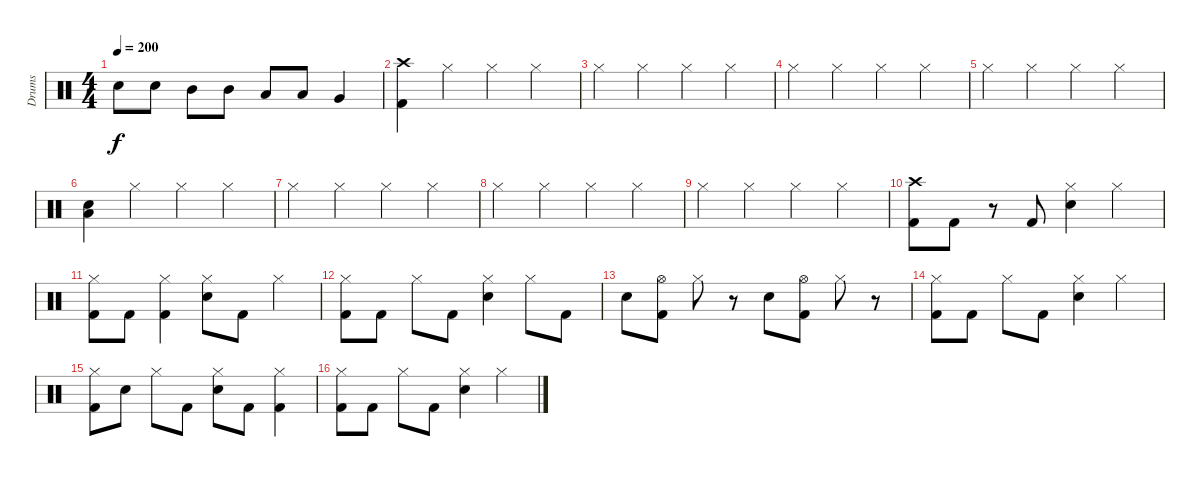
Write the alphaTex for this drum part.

\track ("Drums" "Drums") {instrument percussion}
\staff {score}
\articulation defaults
\ts (4 4)
\tempo 200
\clef neutral
\ks c "Electric Snare (hit)".8{dy f} "Electric Snare (hit)".8 "Mid Tom (hit)".8 "Mid Tom (hit)".8 "Low Tom (hit)".8 "Low Tom (hit)".8 "Very Low Tom (hit)".4
|
("Crash high (hit)" "Kick (hit) 2").4 "Hi-Hat (closed)".4 "Hi-Hat (closed)".4 "Hi-Hat (closed)".4 |
"Hi-Hat (closed)".4 "Hi-Hat (closed)".4 "Hi-Hat (closed)".4 "Hi-Hat (closed)".4 |
"Hi-Hat (closed)".4 "Hi-Hat (closed)".4 "Hi-Hat (closed)".4 "Hi-Hat (closed)".4 |
"Hi-Hat (closed)".4 "Hi-Hat (closed)".4 "Hi-Hat (closed)".4 "Hi-Hat (closed)".4 |
("Electric Snare (hit)" "Low Tom (hit)").4 "Hi-Hat (closed)".4 "Hi-Hat (closed)".4 "Hi-Hat (closed)".4 |
"Hi-Hat (closed)".4 "Hi-Hat (closed)".4 "Hi-Hat (closed)".4 "Hi-Hat (closed)".4 |
"Hi-Hat (closed)".4 "Hi-Hat (closed)".4 "Hi-Hat (closed)".4 "Hi-Hat (closed)".4 |
"Hi-Hat (closed)".4 "Hi-Hat (closed)".4 "Hi-Hat (closed)".4 "Hi-Hat (closed)".4 |
("Crash high (hit)" "Kick (hit) 2").8 "Kick (hit) 2".8 r.8 "Kick (hit) 2".8 ("Hi-Hat (closed)" "Electric Snare (hit)").4 "Hi-Hat (closed)".4 |
("Hi-Hat (closed)" "Kick (hit) 2").8 "Kick (hit) 2".8 ("Hi-Hat (closed)" "Kick (hit) 2").4 ("Hi-Hat (closed)" "Electric Snare (hit)").8 "Kick (hit) 2".8 "Hi-Hat (closed)".4 |
("Hi-Hat (closed)" "Kick (hit) 2").8 "Kick (hit) 2".8 "Hi-Hat (closed)".8 "Kick (hit) 2".8 ("Hi-Hat (closed)" "Electric Snare (hit)").4 "Hi-Hat (closed)".8 "Kick (hit) 2".8 |
"Electric Snare (hit)".8 ("Hi-Hat (open)" "Kick (hit) 2").8 "Hi-Hat (closed)".8 r.8 "Electric Snare (hit)".8 ("Hi-Hat (open)" "Kick (hit) 2").8 "Hi-Hat (closed)".8 r.8 |
("Hi-Hat (closed)" "Kick (hit) 2").8 "Kick (hit) 2".8 "Hi-Hat (closed)".8 "Kick (hit) 2".8 ("Hi-Hat (closed)" "Electric Snare (hit)").4 "Hi-Hat (closed)".4 |
("Hi-Hat (closed)" "Kick (hit) 2").8 "Electric Snare (hit)".8 "Hi-Hat (closed)".8 "Kick (hit) 2".8 ("Hi-Hat (closed)" "Electric Snare (hit)").8 "Kick (hit) 2".8 ("Hi-Hat (closed)" "Kick (hit) 2").4 |
("Hi-Hat (closed)" "Kick (hit) 2").8 "Kick (hit) 2".8 "Hi-Hat (closed)".8 "Kick (hit) 2".8 ("Hi-Hat (closed)" "Electric Snare (hit)").4 "Hi-Hat (closed)".4
